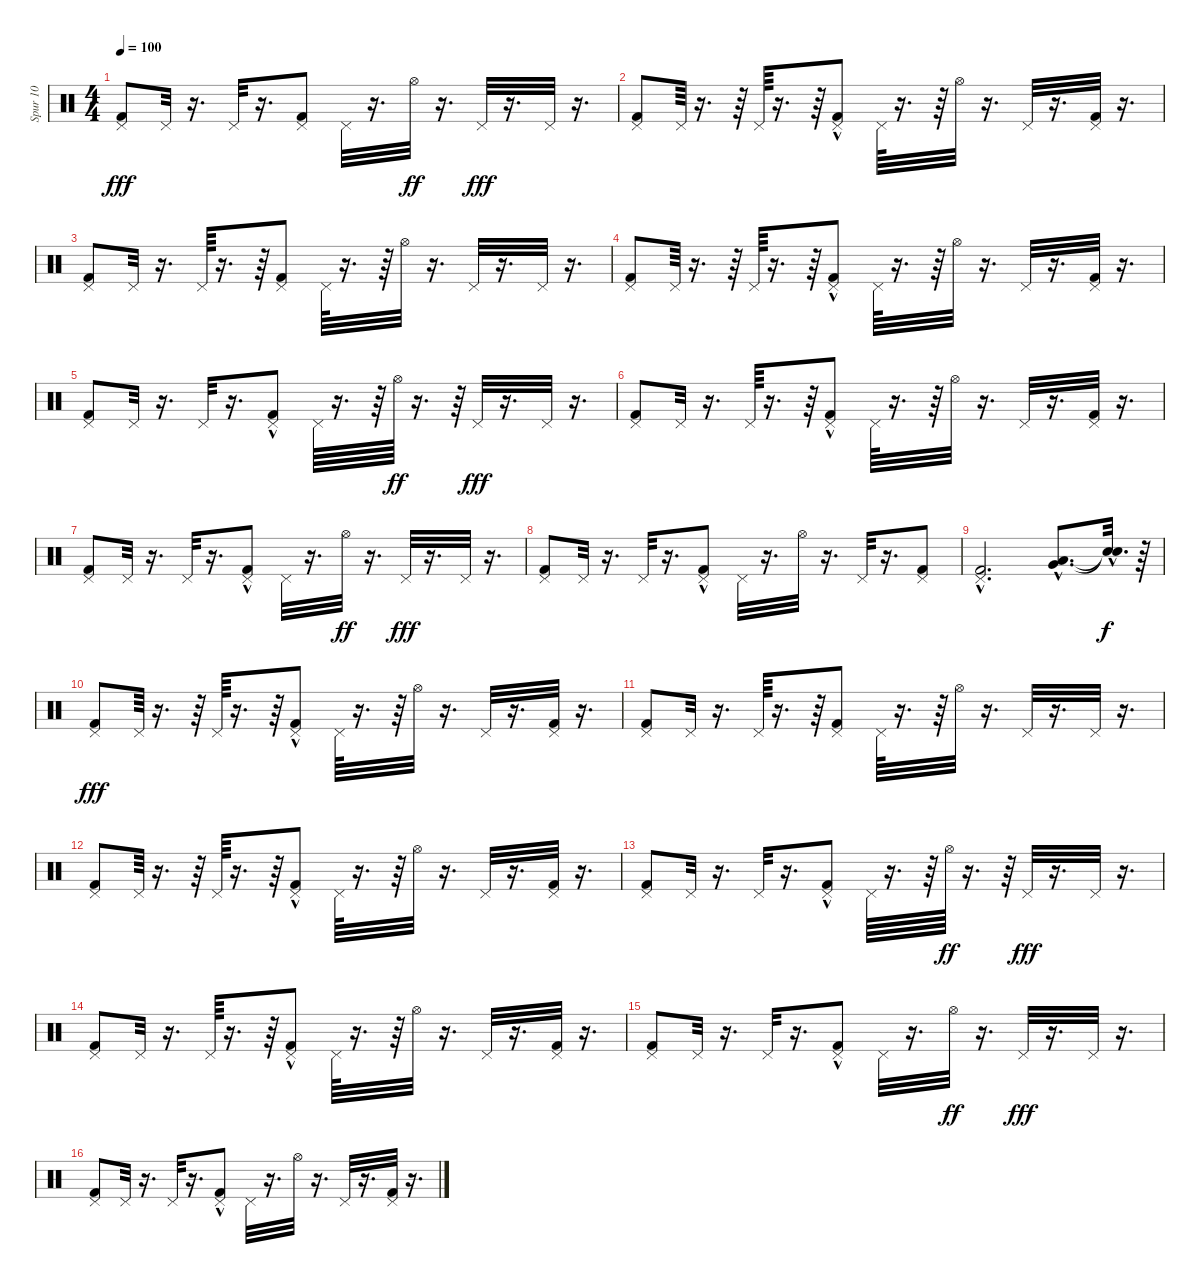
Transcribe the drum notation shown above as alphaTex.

\track ("Spur 10" "Spur 10") {instrument percussion}
\staff {score}
\articulation defaults
\ts (4 4)
\tempo 100
\clef neutral
\ks c
("Pedal Hi-Hat (hit)" "Kick (hit) 2").8{dy fff} "Pedal Hi-Hat (hit)".32 r.16{d} "Pedal Hi-Hat (hit)".32 r.16{d} ("Pedal Hi-Hat (hit)" "Kick (hit) 2").8 "Pedal Hi-Hat (hit)".32 r.16{d} "Hi-Hat (open)".32{dy ff} r.16{d} "Pedal Hi-Hat (hit)".32{dy fff} r.16{d} "Pedal Hi-Hat (hit)".32 r.16{d} |
("Pedal Hi-Hat (hit)" "Kick (hit) 2").8 "Pedal Hi-Hat (hit)".64 r.16{d} r.64 "Pedal Hi-Hat (hit)".64 r.16{d} r.64 ("Pedal Hi-Hat (hit)" "Kick (hit) 2"{hac}).8 "Pedal Hi-Hat (hit)".64 r.16{d} r.64 "Hi-Hat (open)".32 r.16{d} "Pedal Hi-Hat (hit)".32 r.16{d} ("Pedal Hi-Hat (hit)" "Kick (hit) 2").32 r.16{d} |
("Pedal Hi-Hat (hit)" "Kick (hit) 2").8 "Pedal Hi-Hat (hit)".32 r.16{d} "Pedal Hi-Hat (hit)".64 r.16{d} r.64 ("Pedal Hi-Hat (hit)" "Kick (hit) 2").8 "Pedal Hi-Hat (hit)".64 r.16{d} r.64 "Hi-Hat (open)".32 r.16{d} "Pedal Hi-Hat (hit)".32 r.16{d} "Pedal Hi-Hat (hit)".32 r.16{d} |
("Pedal Hi-Hat (hit)" "Kick (hit) 2").8 "Pedal Hi-Hat (hit)".64 r.16{d} r.64 "Pedal Hi-Hat (hit)".64 r.16{d} r.64 ("Pedal Hi-Hat (hit)" "Kick (hit) 2"{hac}).8 "Pedal Hi-Hat (hit)".64 r.16{d} r.64 "Hi-Hat (open)".32 r.16{d} "Pedal Hi-Hat (hit)".32 r.16{d} ("Pedal Hi-Hat (hit)" "Kick (hit) 2").32 r.16{d} |
("Pedal Hi-Hat (hit)" "Kick (hit) 2").8 "Pedal Hi-Hat (hit)".32 r.16{d} "Pedal Hi-Hat (hit)".32 r.16{d} ("Pedal Hi-Hat (hit)" "Kick (hit) 2"{hac}).8 "Pedal Hi-Hat (hit)".64 r.16{d} r.64 "Hi-Hat (open)".64{dy ff} r.16{d} r.64 "Pedal Hi-Hat (hit)".32{dy fff} r.16{d} "Pedal Hi-Hat (hit)".32 r.16{d} |
("Pedal Hi-Hat (hit)" "Kick (hit) 2").8 "Pedal Hi-Hat (hit)".32 r.16{d} "Pedal Hi-Hat (hit)".64 r.16{d} r.64 ("Pedal Hi-Hat (hit)" "Kick (hit) 2"{hac}).8 "Pedal Hi-Hat (hit)".64 r.16{d} r.64 "Hi-Hat (open)".32 r.16{d} "Pedal Hi-Hat (hit)".32 r.16{d} ("Pedal Hi-Hat (hit)" "Kick (hit) 2").32 r.16{d} |
("Pedal Hi-Hat (hit)" "Kick (hit) 2").8 "Pedal Hi-Hat (hit)".32 r.16{d} "Pedal Hi-Hat (hit)".32 r.16{d} ("Pedal Hi-Hat (hit)" "Kick (hit) 2"{hac}).8 "Pedal Hi-Hat (hit)".32 r.16{d} "Hi-Hat (open)".32{dy ff} r.16{d} "Pedal Hi-Hat (hit)".32{dy fff} r.16{d} "Pedal Hi-Hat (hit)".32 r.16{d} |
("Pedal Hi-Hat (hit)" "Kick (hit) 2").8 "Pedal Hi-Hat (hit)".32 r.16{d} "Pedal Hi-Hat (hit)".32 r.16{d} ("Pedal Hi-Hat (hit)" "Kick (hit) 2"{hac}).8 "Pedal Hi-Hat (hit)".32 r.16{d} "Hi-Hat (open)".32 r.16{d} "Pedal Hi-Hat (hit)".32 r.16{d} ("Pedal Hi-Hat (hit)" "Kick (hit) 2").8 |
("Pedal Hi-Hat (hit)"{hac} "Kick (hit) 2"{hac}).2{d} ("Very Low Tom (hit)"{hac} "Low Tom (hit)"{hac}).8{d} ("Snare (hit)"{hac t} "Snare (hit)"{hac t}).32{d dy f} r.64 |
("Pedal Hi-Hat (hit)" "Kick (hit) 2").8{dy fff} "Pedal Hi-Hat (hit)".64 r.16{d} r.64 "Pedal Hi-Hat (hit)".64 r.16{d} r.64 ("Pedal Hi-Hat (hit)" "Kick (hit) 2"{hac}).8 "Pedal Hi-Hat (hit)".64 r.16{d} r.64 "Hi-Hat (open)".32 r.16{d} "Pedal Hi-Hat (hit)".32 r.16{d} ("Pedal Hi-Hat (hit)" "Kick (hit) 2").32 r.16{d} |
("Pedal Hi-Hat (hit)" "Kick (hit) 2").8 "Pedal Hi-Hat (hit)".32 r.16{d} "Pedal Hi-Hat (hit)".64 r.16{d} r.64 ("Pedal Hi-Hat (hit)" "Kick (hit) 2").8 "Pedal Hi-Hat (hit)".64 r.16{d} r.64 "Hi-Hat (open)".32 r.16{d} "Pedal Hi-Hat (hit)".32 r.16{d} "Pedal Hi-Hat (hit)".32 r.16{d} |
("Pedal Hi-Hat (hit)" "Kick (hit) 2").8 "Pedal Hi-Hat (hit)".64 r.16{d} r.64 "Pedal Hi-Hat (hit)".64 r.16{d} r.64 ("Pedal Hi-Hat (hit)" "Kick (hit) 2"{hac}).8 "Pedal Hi-Hat (hit)".64 r.16{d} r.64 "Hi-Hat (open)".32 r.16{d} "Pedal Hi-Hat (hit)".32 r.16{d} ("Pedal Hi-Hat (hit)" "Kick (hit) 2").32 r.16{d} |
("Pedal Hi-Hat (hit)" "Kick (hit) 2").8 "Pedal Hi-Hat (hit)".32 r.16{d} "Pedal Hi-Hat (hit)".32 r.16{d} ("Pedal Hi-Hat (hit)" "Kick (hit) 2"{hac}).8 "Pedal Hi-Hat (hit)".64 r.16{d} r.64 "Hi-Hat (open)".64{dy ff} r.16{d} r.64 "Pedal Hi-Hat (hit)".32{dy fff} r.16{d} "Pedal Hi-Hat (hit)".32 r.16{d} |
("Pedal Hi-Hat (hit)" "Kick (hit) 2").8 "Pedal Hi-Hat (hit)".32 r.16{d} "Pedal Hi-Hat (hit)".64 r.16{d} r.64 ("Pedal Hi-Hat (hit)" "Kick (hit) 2"{hac}).8 "Pedal Hi-Hat (hit)".64 r.16{d} r.64 "Hi-Hat (open)".32 r.16{d} "Pedal Hi-Hat (hit)".32 r.16{d} ("Pedal Hi-Hat (hit)" "Kick (hit) 2").32 r.16{d} |
("Pedal Hi-Hat (hit)" "Kick (hit) 2").8 "Pedal Hi-Hat (hit)".32 r.16{d} "Pedal Hi-Hat (hit)".32 r.16{d} ("Pedal Hi-Hat (hit)" "Kick (hit) 2"{hac}).8 "Pedal Hi-Hat (hit)".32 r.16{d} "Hi-Hat (open)".32{dy ff} r.16{d} "Pedal Hi-Hat (hit)".32{dy fff} r.16{d} "Pedal Hi-Hat (hit)".32 r.16{d} |
("Pedal Hi-Hat (hit)" "Kick (hit) 2").8 "Pedal Hi-Hat (hit)".32 r.16{d} "Pedal Hi-Hat (hit)".32 r.16{d} ("Pedal Hi-Hat (hit)" "Kick (hit) 2"{hac}).8 "Pedal Hi-Hat (hit)".32 r.16{d} "Hi-Hat (open)".32 r.16{d} "Pedal Hi-Hat (hit)".32 r.16{d} ("Pedal Hi-Hat (hit)" "Kick (hit) 2").32 r.16{d}
